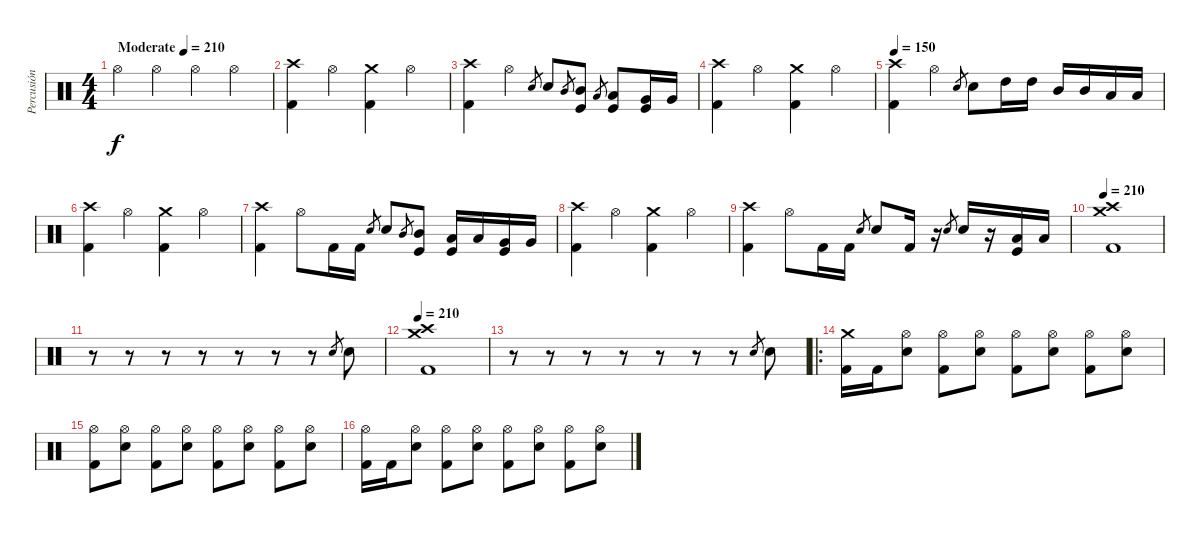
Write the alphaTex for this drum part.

\track ("Percusión" "Percusión") {instrument percussion}
\staff {score}
\articulation defaults
\ts (4 4)
\tempo (210 "Moderate")
\tempo 125
\tempo (210 "Moderate")
\clef neutral
\ks c "Hi-Hat (open)".4{dy f} "Hi-Hat (open)".4 "Hi-Hat (open)".4 "Hi-Hat (open)".4
|
("Crash high (hit)" "Kick (hit) 2").4 "Hi-Hat (open)".4 ("Crash medium (hit)" "Kick (hit) 2").4 "Hi-Hat (open)".4 |
("Crash high (hit)" "Kick (hit) 2").4 "Hi-Hat (open)".4 "Snare (hit) 2".8{gr} "Snare (hit) 2".8 "Mid Tom (hit)".8{gr} ("Mid Tom (hit)" "Kick (hit)").8 "Low Tom (hit)".8{gr} ("Low Tom (hit)" "Kick (hit)").8 ("Very Low Tom (hit)" "Kick (hit)").16 "Very Low Tom (hit)".16 |
("Crash high (hit)" "Kick (hit) 2").4 "Hi-Hat (open)".4 ("Crash medium (hit)" "Kick (hit) 2").4 "Hi-Hat (open)".4 |
\tempo 150
("Crash high (hit)" "Kick (hit) 2").4 "Hi-Hat (open)".4 "Snare (hit) 2".8{gr} "Snare (hit) 2".8 "High Tom (hit)".16 "High Tom (hit)".16 "Mid Tom (hit)".16 "Mid Tom (hit)".16 "Low Tom (hit)".16 "Low Tom (hit)".16 |
("Crash high (hit)" "Kick (hit) 2").4 "Hi-Hat (open)".4 ("Crash medium (hit)" "Kick (hit) 2").4 "Hi-Hat (open)".4 |
("Crash high (hit)" "Kick (hit) 2").4 "Hi-Hat (open)".8 "Kick (hit) 2".16 "Kick (hit) 2".16 "Snare (hit) 2".8{gr} "Snare (hit) 2".8 "Mid Tom (hit)".8{gr} ("Mid Tom (hit)" "Kick (hit)").8 ("Low Tom (hit)" "Kick (hit)").16 "Low Tom (hit)".16 ("Very Low Tom (hit)" "Kick (hit)").16 "Very Low Tom (hit)".16 |
("Crash high (hit)" "Kick (hit) 2").4 "Hi-Hat (open)".4 ("Crash medium (hit)" "Kick (hit) 2").4 "Hi-Hat (open)".4 |
("Crash high (hit)" "Kick (hit) 2").4 "Hi-Hat (open)".8 "Kick (hit) 2".16 "Kick (hit) 2".16 "Snare (hit) 2".8{gr} "Snare (hit) 2".8 "Kick (hit) 2".16 r.16 "Snare (hit) 2".8{gr} "Snare (hit) 2".16 r.16 ("Low Tom (hit)" "Kick (hit)").16 "Low Tom (hit)".16 |
\tempo 210
("Crash medium (hit)" "Crash high (hit)" "Kick (hit) 2").1 |
r.8 r.8 r.8 r.8 r.8 r.8 r.8 "Snare (hit) 2".8{gr} "Snare (hit) 2".8 |
\tempo 210
("Crash medium (hit)" "Crash high (hit)" "Kick (hit) 2").1 |
r.8 r.8 r.8 r.8 r.8 r.8 r.8 "Snare (hit) 2".8{gr} "Snare (hit) 2".8 |
\ro
("Crash medium (hit)" "Kick (hit) 2").16 "Kick (hit) 2".16 ("Hi-Hat (open)" "Snare (hit) 2").8 ("Hi-Hat (open)" "Kick (hit) 2").8 ("Hi-Hat (open)" "Snare (hit) 2").8 ("Hi-Hat (open)" "Kick (hit) 2").8 ("Hi-Hat (open)" "Snare (hit) 2").8 ("Hi-Hat (open)" "Kick (hit) 2").8 ("Hi-Hat (open)" "Snare (hit) 2").8 |
("Hi-Hat (open)" "Kick (hit) 2").8 ("Hi-Hat (open)" "Snare (hit) 2").8 ("Hi-Hat (open)" "Kick (hit) 2").8 ("Hi-Hat (open)" "Snare (hit) 2").8 ("Hi-Hat (open)" "Kick (hit) 2").8 ("Hi-Hat (open)" "Snare (hit) 2").8 ("Hi-Hat (open)" "Kick (hit) 2").8 ("Hi-Hat (open)" "Snare (hit) 2").8 |
("Hi-Hat (open)" "Kick (hit) 2").16 "Kick (hit) 2".16 ("Hi-Hat (open)" "Snare (hit) 2").8 ("Hi-Hat (open)" "Kick (hit) 2").8 ("Hi-Hat (open)" "Snare (hit) 2").8 ("Hi-Hat (open)" "Kick (hit) 2").8 ("Hi-Hat (open)" "Snare (hit) 2").8 ("Hi-Hat (open)" "Kick (hit) 2").8 ("Hi-Hat (open)" "Snare (hit) 2").8
